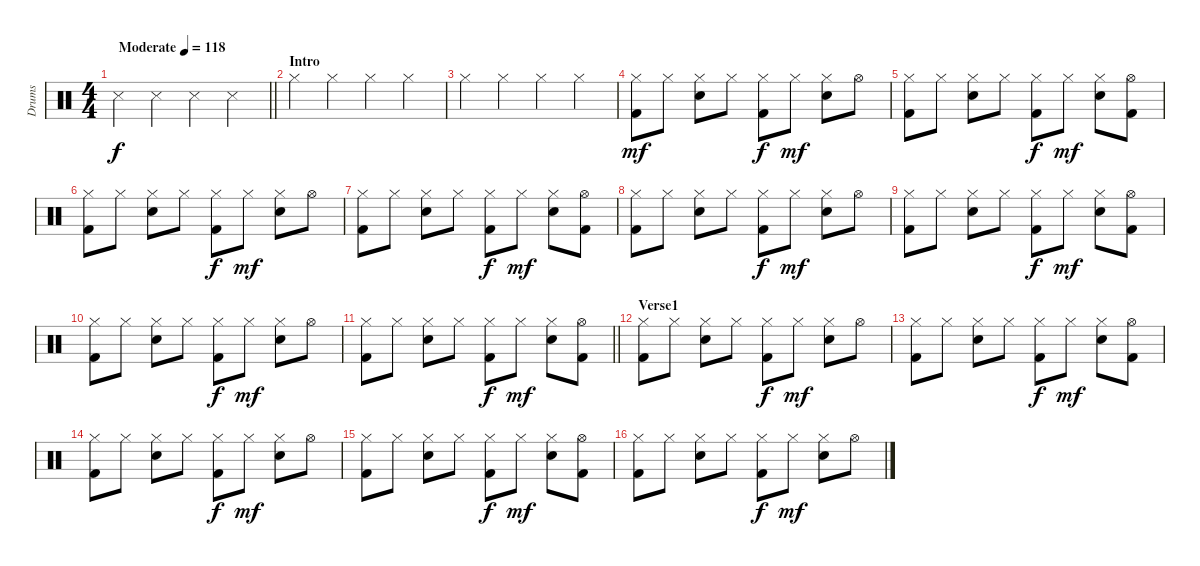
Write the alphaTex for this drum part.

\track ("Drums" "Drums") {instrument percussion}
\staff {score}
\articulation defaults
\ts (4 4)
\tempo (118 "Moderate")
\clef neutral
\barLineRight lightlight
\ks c "Metronome (hit)".4{dy f} "Metronome (hit)".4 "Metronome (hit)".4 "Metronome (hit)".4
|
\section ("" "Intro")
"Hi-Hat (closed)".4 "Hi-Hat (closed)".4 "Hi-Hat (closed)".4 "Hi-Hat (closed)".4 |
"Hi-Hat (closed)".4 "Hi-Hat (closed)".4 "Hi-Hat (closed)".4 "Hi-Hat (closed)".4 |
("Hi-Hat (closed)" "Kick (hit) 2").8{dy mf} "Hi-Hat (closed)".8 ("Hi-Hat (closed)" "Snare (hit) 2").8 "Hi-Hat (closed)".8 ("Hi-Hat (closed)" "Kick (hit) 2").8{dy f} "Hi-Hat (closed)".8{dy mf} ("Hi-Hat (closed)" "Snare (hit) 2").8 "Hi-Hat (open)".8 |
("Hi-Hat (closed)" "Kick (hit) 2").8 "Hi-Hat (closed)".8 ("Hi-Hat (closed)" "Snare (hit) 2").8 "Hi-Hat (closed)".8 ("Hi-Hat (closed)" "Kick (hit) 2").8{dy f} "Hi-Hat (closed)".8{dy mf} ("Hi-Hat (closed)" "Snare (hit) 2").8 ("Hi-Hat (open)" "Kick (hit) 2").8 |
("Hi-Hat (closed)" "Kick (hit) 2").8 "Hi-Hat (closed)".8 ("Hi-Hat (closed)" "Snare (hit) 2").8 "Hi-Hat (closed)".8 ("Hi-Hat (closed)" "Kick (hit) 2").8{dy f} "Hi-Hat (closed)".8{dy mf} ("Hi-Hat (closed)" "Snare (hit) 2").8 "Hi-Hat (open)".8 |
("Hi-Hat (closed)" "Kick (hit) 2").8 "Hi-Hat (closed)".8 ("Hi-Hat (closed)" "Snare (hit) 2").8 "Hi-Hat (closed)".8 ("Hi-Hat (closed)" "Kick (hit) 2").8{dy f} "Hi-Hat (closed)".8{dy mf} ("Hi-Hat (closed)" "Snare (hit) 2").8 ("Hi-Hat (open)" "Kick (hit) 2").8 |
("Hi-Hat (closed)" "Kick (hit) 2").8 "Hi-Hat (closed)".8 ("Hi-Hat (closed)" "Snare (hit) 2").8 "Hi-Hat (closed)".8 ("Hi-Hat (closed)" "Kick (hit) 2").8{dy f} "Hi-Hat (closed)".8{dy mf} ("Hi-Hat (closed)" "Snare (hit) 2").8 "Hi-Hat (open)".8 |
("Hi-Hat (closed)" "Kick (hit) 2").8 "Hi-Hat (closed)".8 ("Hi-Hat (closed)" "Snare (hit) 2").8 "Hi-Hat (closed)".8 ("Hi-Hat (closed)" "Kick (hit) 2").8{dy f} "Hi-Hat (closed)".8{dy mf} ("Hi-Hat (closed)" "Snare (hit) 2").8 ("Hi-Hat (open)" "Kick (hit) 2").8 |
("Hi-Hat (closed)" "Kick (hit) 2").8 "Hi-Hat (closed)".8 ("Hi-Hat (closed)" "Snare (hit) 2").8 "Hi-Hat (closed)".8 ("Hi-Hat (closed)" "Kick (hit) 2").8{dy f} "Hi-Hat (closed)".8{dy mf} ("Hi-Hat (closed)" "Snare (hit) 2").8 "Hi-Hat (open)".8 |
\barLineRight lightlight
("Hi-Hat (closed)" "Kick (hit) 2").8 "Hi-Hat (closed)".8 ("Hi-Hat (closed)" "Snare (hit) 2").8 "Hi-Hat (closed)".8 ("Hi-Hat (closed)" "Kick (hit) 2").8{dy f} "Hi-Hat (closed)".8{dy mf} ("Hi-Hat (closed)" "Snare (hit) 2").8 ("Hi-Hat (open)" "Kick (hit) 2").8 |
\section ("" "Verse1")
("Hi-Hat (closed)" "Kick (hit) 2").8 "Hi-Hat (closed)".8 ("Hi-Hat (closed)" "Snare (hit) 2").8 "Hi-Hat (closed)".8 ("Hi-Hat (closed)" "Kick (hit) 2").8{dy f} "Hi-Hat (closed)".8{dy mf} ("Hi-Hat (closed)" "Snare (hit) 2").8 "Hi-Hat (open)".8 |
("Hi-Hat (closed)" "Kick (hit) 2").8 "Hi-Hat (closed)".8 ("Hi-Hat (closed)" "Snare (hit) 2").8 "Hi-Hat (closed)".8 ("Hi-Hat (closed)" "Kick (hit) 2").8{dy f} "Hi-Hat (closed)".8{dy mf} ("Hi-Hat (closed)" "Snare (hit) 2").8 ("Hi-Hat (open)" "Kick (hit) 2").8 |
("Hi-Hat (closed)" "Kick (hit) 2").8 "Hi-Hat (closed)".8 ("Hi-Hat (closed)" "Snare (hit) 2").8 "Hi-Hat (closed)".8 ("Hi-Hat (closed)" "Kick (hit) 2").8{dy f} "Hi-Hat (closed)".8{dy mf} ("Hi-Hat (closed)" "Snare (hit) 2").8 "Hi-Hat (open)".8 |
("Hi-Hat (closed)" "Kick (hit) 2").8 "Hi-Hat (closed)".8 ("Hi-Hat (closed)" "Snare (hit) 2").8 "Hi-Hat (closed)".8 ("Hi-Hat (closed)" "Kick (hit) 2").8{dy f} "Hi-Hat (closed)".8{dy mf} ("Hi-Hat (closed)" "Snare (hit) 2").8 ("Hi-Hat (open)" "Kick (hit) 2").8 |
("Hi-Hat (closed)" "Kick (hit) 2").8 "Hi-Hat (closed)".8 ("Hi-Hat (closed)" "Snare (hit) 2").8 "Hi-Hat (closed)".8 ("Hi-Hat (closed)" "Kick (hit) 2").8{dy f} "Hi-Hat (closed)".8{dy mf} ("Hi-Hat (closed)" "Snare (hit) 2").8 "Hi-Hat (open)".8
